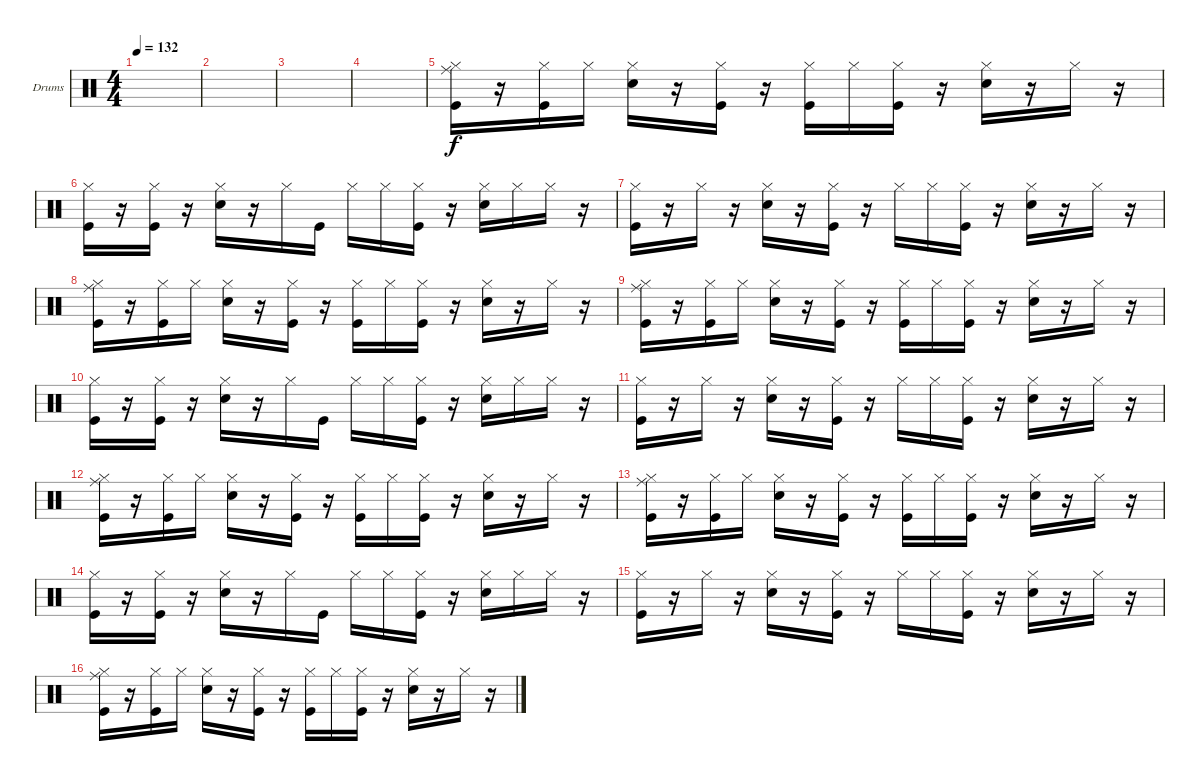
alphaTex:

\defaultSystemsLayout 4
\bracketExtendMode groupsimilarinstruments
\firstSystemTrackNameOrientation horizontal
\otherSystemsTrackNameOrientation horizontal
\track ("Drumkit" "Drums") {instrument percussion}
\staff {score}
\articulation defaults
\ts (4 4)
\tempo 132
\clef neutral
\ks c
|
|
|
|
("Kick (hit)" "Ride (middle)" "Hi-Hat (closed)").16 r.16 ("Kick (hit)" "Hi-Hat (closed)").16 "Hi-Hat (closed)".16 ("Snare (hit) 2" "Hi-Hat (closed)").16 r.16 ("Kick (hit)" "Hi-Hat (closed)").16 r.16 ("Kick (hit)" "Hi-Hat (closed)").16 "Hi-Hat (closed)".16 ("Kick (hit)" "Hi-Hat (closed)").16 r.16 ("Snare (hit) 2" "Hi-Hat (closed)").16 r.16 "Hi-Hat (closed)".16 r.16 |
("Kick (hit)" "Hi-Hat (closed)").16 r.16 ("Kick (hit)" "Hi-Hat (closed)").16 r.16 ("Snare (hit) 2" "Hi-Hat (closed)").16 r.16 "Hi-Hat (closed)".16 "Kick (hit)".16 "Hi-Hat (closed)".16 "Hi-Hat (closed)".16 ("Kick (hit)" "Hi-Hat (closed)").16 r.16 ("Snare (hit) 2" "Hi-Hat (closed)").16 "Hi-Hat (closed)".16 "Hi-Hat (closed)".16 r.16 |
("Kick (hit)" "Hi-Hat (closed)").16 r.16 "Hi-Hat (closed)".16 r.16 ("Snare (hit) 2" "Hi-Hat (closed)").16 r.16 ("Kick (hit)" "Hi-Hat (closed)").16 r.16 "Hi-Hat (closed)".16 "Hi-Hat (closed)".16 ("Kick (hit)" "Hi-Hat (closed)").16 r.16 ("Snare (hit) 2" "Hi-Hat (closed)").16 r.16 "Hi-Hat (closed)".16 r.16 |
("Kick (hit)" "Ride (middle)" "Hi-Hat (closed)").16 r.16 ("Kick (hit)" "Hi-Hat (closed)").16 "Hi-Hat (closed)".16 ("Snare (hit) 2" "Hi-Hat (closed)").16 r.16 ("Kick (hit)" "Hi-Hat (closed)").16 r.16 ("Kick (hit)" "Hi-Hat (closed)").16 "Hi-Hat (closed)".16 ("Kick (hit)" "Hi-Hat (closed)").16 r.16 ("Snare (hit) 2" "Hi-Hat (closed)").16 r.16 "Hi-Hat (closed)".16 r.16 |
("Kick (hit)" "Ride (middle)" "Hi-Hat (closed)").16 r.16 ("Kick (hit)" "Hi-Hat (closed)").16 "Hi-Hat (closed)".16 ("Snare (hit) 2" "Hi-Hat (closed)").16 r.16 ("Kick (hit)" "Hi-Hat (closed)").16 r.16 ("Kick (hit)" "Hi-Hat (closed)").16 "Hi-Hat (closed)".16 ("Kick (hit)" "Hi-Hat (closed)").16 r.16 ("Snare (hit) 2" "Hi-Hat (closed)").16 r.16 "Hi-Hat (closed)".16 r.16 |
("Kick (hit)" "Hi-Hat (closed)").16 r.16 ("Kick (hit)" "Hi-Hat (closed)").16 r.16 ("Snare (hit) 2" "Hi-Hat (closed)").16 r.16 "Hi-Hat (closed)".16 "Kick (hit)".16 "Hi-Hat (closed)".16 "Hi-Hat (closed)".16 ("Kick (hit)" "Hi-Hat (closed)").16 r.16 ("Snare (hit) 2" "Hi-Hat (closed)").16 "Hi-Hat (closed)".16 "Hi-Hat (closed)".16 r.16 |
("Kick (hit)" "Hi-Hat (closed)").16 r.16 "Hi-Hat (closed)".16 r.16 ("Snare (hit) 2" "Hi-Hat (closed)").16 r.16 ("Kick (hit)" "Hi-Hat (closed)").16 r.16 "Hi-Hat (closed)".16 "Hi-Hat (closed)".16 ("Kick (hit)" "Hi-Hat (closed)").16 r.16 ("Snare (hit) 2" "Hi-Hat (closed)").16 r.16 "Hi-Hat (closed)".16 r.16 |
("Kick (hit)" "Ride (middle)" "Hi-Hat (closed)").16 r.16 ("Kick (hit)" "Hi-Hat (closed)").16 "Hi-Hat (closed)".16 ("Snare (hit) 2" "Hi-Hat (closed)").16 r.16 ("Kick (hit)" "Hi-Hat (closed)").16 r.16 ("Kick (hit)" "Hi-Hat (closed)").16 "Hi-Hat (closed)".16 ("Kick (hit)" "Hi-Hat (closed)").16 r.16 ("Snare (hit) 2" "Hi-Hat (closed)").16 r.16 "Hi-Hat (closed)".16 r.16 |
("Kick (hit)" "Ride (middle)" "Hi-Hat (closed)").16 r.16 ("Kick (hit)" "Hi-Hat (closed)").16 "Hi-Hat (closed)".16 ("Snare (hit) 2" "Hi-Hat (closed)").16 r.16 ("Kick (hit)" "Hi-Hat (closed)").16 r.16 ("Kick (hit)" "Hi-Hat (closed)").16 "Hi-Hat (closed)".16 ("Kick (hit)" "Hi-Hat (closed)").16 r.16 ("Snare (hit) 2" "Hi-Hat (closed)").16 r.16 "Hi-Hat (closed)".16 r.16 |
("Kick (hit)" "Hi-Hat (closed)").16 r.16 ("Kick (hit)" "Hi-Hat (closed)").16 r.16 ("Snare (hit) 2" "Hi-Hat (closed)").16 r.16 "Hi-Hat (closed)".16 "Kick (hit)".16 "Hi-Hat (closed)".16 "Hi-Hat (closed)".16 ("Kick (hit)" "Hi-Hat (closed)").16 r.16 ("Snare (hit) 2" "Hi-Hat (closed)").16 "Hi-Hat (closed)".16 "Hi-Hat (closed)".16 r.16 |
("Kick (hit)" "Hi-Hat (closed)").16 r.16 "Hi-Hat (closed)".16 r.16 ("Snare (hit) 2" "Hi-Hat (closed)").16 r.16 ("Kick (hit)" "Hi-Hat (closed)").16 r.16 "Hi-Hat (closed)".16 "Hi-Hat (closed)".16 ("Kick (hit)" "Hi-Hat (closed)").16 r.16 ("Snare (hit) 2" "Hi-Hat (closed)").16 r.16 "Hi-Hat (closed)".16 r.16 |
("Kick (hit)" "Ride (middle)" "Hi-Hat (closed)").16 r.16 ("Kick (hit)" "Hi-Hat (closed)").16 "Hi-Hat (closed)".16 ("Snare (hit) 2" "Hi-Hat (closed)").16 r.16 ("Kick (hit)" "Hi-Hat (closed)").16 r.16 ("Kick (hit)" "Hi-Hat (closed)").16 "Hi-Hat (closed)".16 ("Kick (hit)" "Hi-Hat (closed)").16 r.16 ("Snare (hit) 2" "Hi-Hat (closed)").16 r.16 "Hi-Hat (closed)".16 r.16
